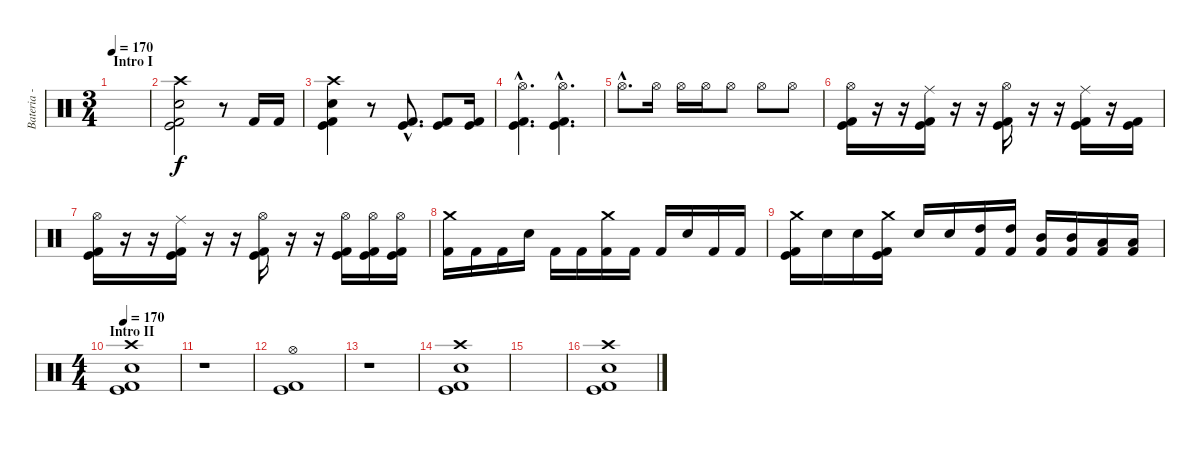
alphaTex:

\track ("Bateria - Drums" "Bateria - ") {instrument percussion}
\staff {score}
\articulation defaults
\ts (3 4)
\section ("" "Intro I")
\tempo 170
\tempo 120
\tempo 170
\clef neutral
\ks c
|
("Crash high (hit)" "Snare (hit) 2" "Kick (hit)" "Kick (hit) 2").2 r.8 "Kick (hit) 2".16 "Kick (hit) 2".16 |
("Crash high (hit)" "Snare (hit) 2" "Kick (hit)" "Kick (hit) 2").4 r.8 ("Kick (hit)"{hac} "Kick (hit) 2"{hac}).8{d} ("Kick (hit)" "Kick (hit) 2").8 ("Kick (hit)" "Kick (hit) 2").16 |
("Hi-Hat (open)"{hac} "Kick (hit)"{hac} "Kick (hit) 2"{hac}).4{d} ("Hi-Hat (open)"{hac} "Kick (hit)"{hac} "Kick (hit) 2"{hac}).4{d} |
"Hi-Hat (open)"{hac}.8{d} "Hi-Hat (open)".16 "Hi-Hat (open)".16 "Hi-Hat (open)".16 "Hi-Hat (open)".8 "Hi-Hat (open)".8 "Hi-Hat (open)".8 |
("Hi-Hat (open)" "Kick (hit)" "Kick (hit) 2").16 r.16 r.16 ("Ride (middle)" "Kick (hit)" "Kick (hit) 2").16 r.16 r.16 ("Hi-Hat (open)" "Kick (hit)" "Kick (hit) 2").16 r.16 r.16 ("Ride (middle)" "Kick (hit)" "Kick (hit) 2").16 r.16 ("Kick (hit)" "Kick (hit) 2").16 |
("Hi-Hat (open)" "Kick (hit)" "Kick (hit) 2").16 r.16 r.16 ("Ride (middle)" "Kick (hit)" "Kick (hit) 2").16 r.16 r.16 ("Hi-Hat (open)" "Kick (hit)" "Kick (hit) 2").16 r.16 r.16 ("Hi-Hat (open)" "Kick (hit)" "Kick (hit) 2").16 ("Hi-Hat (open)" "Kick (hit)" "Kick (hit) 2").16 ("Hi-Hat (open)" "Kick (hit)" "Kick (hit) 2").16 |
("Crash medium (hit)" "Kick (hit) 2").16 "Kick (hit) 2".16 "Kick (hit) 2".16 "Electric Snare (hit)".16 "Kick (hit) 2".16 "Kick (hit) 2".16 ("Crash medium (hit)" "Kick (hit) 2").16 "Kick (hit) 2".16 "Kick (hit) 2".16 "Electric Snare (hit)".16 "Kick (hit) 2".16 "Kick (hit) 2".16 |
("Crash medium (hit)" "Kick (hit)" "Kick (hit) 2").16 "Electric Snare (hit)".16 "Electric Snare (hit)".16 ("Crash medium (hit)" "Kick (hit)" "Kick (hit) 2").16 "Snare (hit) 2".16 "Snare (hit) 2".16 ("High Tom (hit)" "Kick (hit) 2").16 ("High Tom (hit)" "Kick (hit) 2").16 ("Mid Tom (hit)" "Kick (hit) 2").16 ("Mid Tom (hit)" "Kick (hit) 2").16 ("Low Tom (hit)" "Kick (hit) 2").16 ("Low Tom (hit)" "Kick (hit) 2").16 |
\ts (4 4)
\section ("" "Intro II")
\tempo 170
("Crash high (hit)" "Snare (hit) 2" "Kick (hit)" "Kick (hit) 2").1 |
r.1 |
("Hi-Hat (open)" "Kick (hit)" "Kick (hit) 2").1 |
r.1 |
("Crash high (hit)" "Snare (hit) 2" "Kick (hit)" "Kick (hit) 2").1 |
|
("Crash high (hit)" "Snare (hit) 2" "Kick (hit)" "Kick (hit) 2").1
